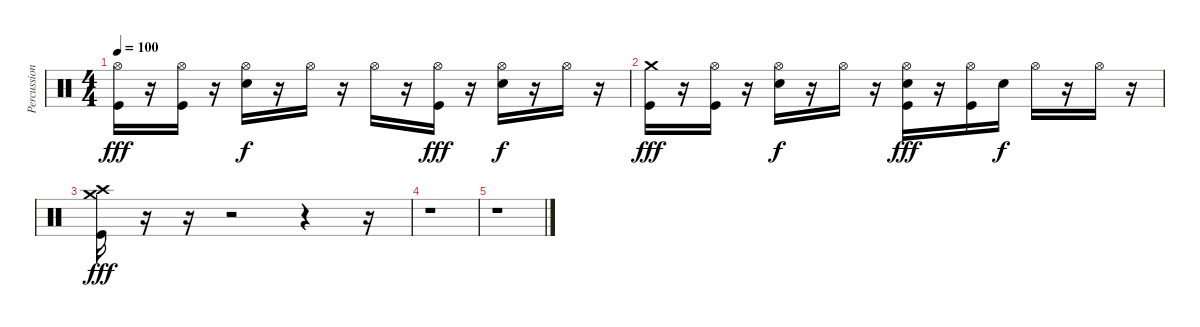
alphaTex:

\track ("Percussion" "Percussion") {instrument percussion}
\staff {score}
\articulation defaults
\ts (4 4)
\tempo 100
\clef neutral
\ks c
("Hi-Hat (open)" "Kick (hit)").16{dy fff} r.16 ("Hi-Hat (open)" "Kick (hit)").16 r.16 ("Hi-Hat (open)" "Electric Snare (hit)").16{dy f} r.16 "Hi-Hat (open)".16 r.16 "Hi-Hat (open)".16 r.16 ("Hi-Hat (open)" "Kick (hit)").16{dy fff} r.16 ("Hi-Hat (open)" "Electric Snare (hit)").16{dy f} r.16 "Hi-Hat (open)".16 r.16 |
("Crash medium (hit)" "Kick (hit)").16{dy fff} r.16 ("Hi-Hat (open)" "Kick (hit)").16 r.16 ("Hi-Hat (open)" "Electric Snare (hit)").16{dy f} r.16 "Hi-Hat (open)".16 r.16 ("Hi-Hat (open)" "Electric Snare (hit)" "Kick (hit)").16{dy fff} r.16 ("Hi-Hat (open)" "Kick (hit)").16 "Electric Snare (hit)".16{dy f} "Hi-Hat (open)".16 r.16 "Hi-Hat (open)".16 r.16 |
("Crash high (hit)" "Crash medium (hit)" "Kick (hit)").16{dy fff} r.16 r.16 r.2 r.4 r.16 |
r.1 |
r.1
